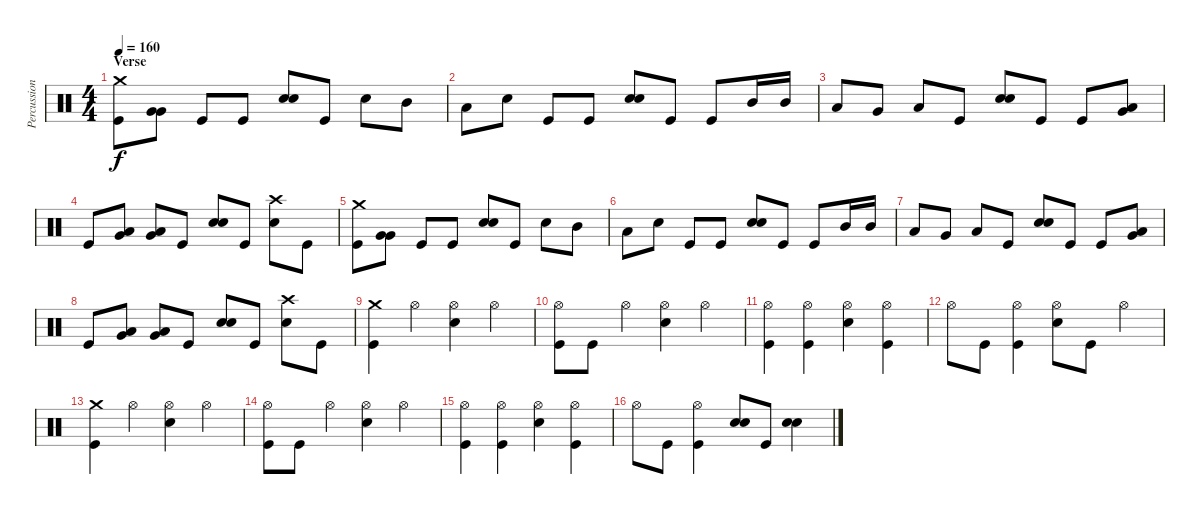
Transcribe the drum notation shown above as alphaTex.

\track ("Percussion" "Percussion") {instrument percussion}
\staff {score}
\articulation defaults
\ts (4 4)
\section ("" "Verse")
\tempo 160
\clef neutral
\ks c
("Crash medium (hit)" "Kick (hit)").8{dy f} ("Very Low Tom (hit)" "Very Low Tom (hit)").8 "Kick (hit)".8 "Kick (hit)".8 ("Snare (hit) 2" "Snare (hit) 2").8{bd 60} "Kick (hit)".8 "Snare (hit) 2".8 "Mid Tom (hit)".8 |
"Low Tom (hit)".8 "Snare (hit) 2".8 "Kick (hit)".8 "Kick (hit)".8 ("Snare (hit) 2" "Snare (hit) 2").8{bd 60} "Kick (hit)".8 "Kick (hit)".8 "Mid Tom (hit)".16 "Mid Tom (hit)".16 |
"Low Tom (hit)".8 "Very Low Tom (hit)".8 "Low Floor Tom (hit)".8 "Kick (hit)".8 ("Snare (hit) 2" "Snare (hit) 2").8 "Kick (hit)".8 "Kick (hit)".8 ("Low Tom (hit)" "Very Low Tom (hit)").8 |
"Kick (hit)".8 ("Very Low Tom (hit)" "Low Floor Tom (hit)").8 ("Very Low Tom (hit)" "Low Floor Tom (hit)").8 "Kick (hit)".8 ("Snare (hit) 2" "Snare (hit) 2").8{bd 60} "Kick (hit)".8 ("Crash high (hit)" "Snare (hit) 2").8 "Kick (hit)".8 |
("Crash medium (hit)" "Kick (hit)").8 ("Very Low Tom (hit)" "Very Low Tom (hit)").8 "Kick (hit)".8 "Kick (hit)".8 ("Snare (hit) 2" "Snare (hit) 2").8{bd 60} "Kick (hit)".8 "Snare (hit) 2".8 "Mid Tom (hit)".8 |
"Low Tom (hit)".8 "Snare (hit) 2".8 "Kick (hit)".8 "Kick (hit)".8 ("Snare (hit) 2" "Snare (hit) 2").8{bd 60} "Kick (hit)".8 "Kick (hit)".8 "Mid Tom (hit)".16 "Mid Tom (hit)".16 |
"Low Tom (hit)".8 "Very Low Tom (hit)".8 "Low Floor Tom (hit)".8 "Kick (hit)".8 ("Snare (hit) 2" "Snare (hit) 2").8 "Kick (hit)".8 "Kick (hit)".8 ("Low Tom (hit)" "Very Low Tom (hit)").8 |
"Kick (hit)".8 ("Very Low Tom (hit)" "Low Floor Tom (hit)").8 ("Very Low Tom (hit)" "Low Floor Tom (hit)").8 "Kick (hit)".8 ("Snare (hit) 2" "Snare (hit) 2").8{bd 60} "Kick (hit)".8 ("Crash high (hit)" "Snare (hit) 2").8 "Kick (hit)".8 |
("Crash medium (hit)" "Kick (hit)").4 "Hi-Hat (open)".4 ("Hi-Hat (open)" "Snare (hit) 2").4 "Hi-Hat (open)".4 |
("Hi-Hat (open)" "Kick (hit)").8 "Kick (hit)".8 "Hi-Hat (open)".4 ("Hi-Hat (open)" "Snare (hit) 2").4 "Hi-Hat (open)".4 |
("Hi-Hat (open)" "Kick (hit)").4 ("Hi-Hat (open)" "Kick (hit)").4 ("Hi-Hat (open)" "Snare (hit) 2").4 ("Hi-Hat (open)" "Kick (hit)").4 |
"Hi-Hat (open)".8 "Kick (hit)".8 ("Hi-Hat (open)" "Kick (hit)").4 ("Hi-Hat (open)" "Snare (hit) 2").8 "Kick (hit)".8 "Hi-Hat (open)".4 |
("Crash medium (hit)" "Kick (hit)").4 "Hi-Hat (open)".4 ("Hi-Hat (open)" "Snare (hit) 2").4 "Hi-Hat (open)".4 |
("Hi-Hat (open)" "Kick (hit)").8 "Kick (hit)".8 "Hi-Hat (open)".4 ("Hi-Hat (open)" "Snare (hit) 2").4 "Hi-Hat (open)".4 |
("Hi-Hat (open)" "Kick (hit)").4 ("Hi-Hat (open)" "Kick (hit)").4 ("Hi-Hat (open)" "Snare (hit) 2").4 ("Hi-Hat (open)" "Kick (hit)").4 |
"Hi-Hat (open)".8 "Kick (hit)".8 ("Hi-Hat (open)" "Kick (hit)").4 ("Snare (hit) 2" "Snare (hit) 2").8{bd 60} "Kick (hit)".8 ("Snare (hit) 2" "Snare (hit) 2").4{bd 60}
